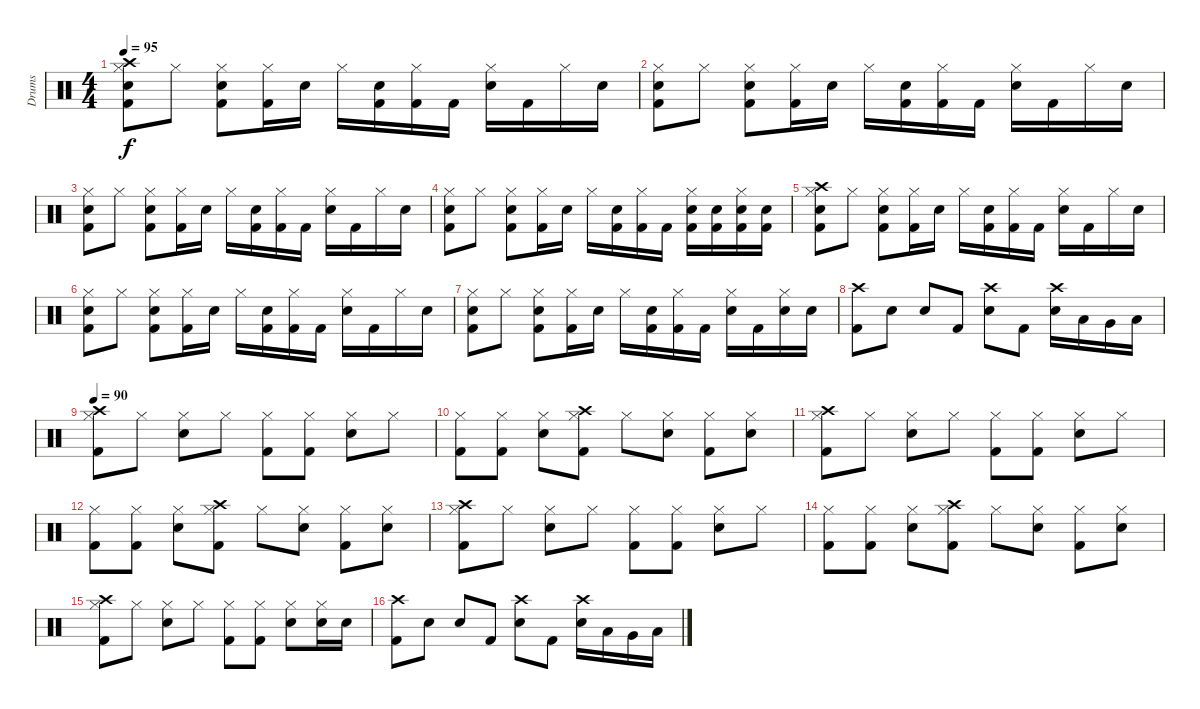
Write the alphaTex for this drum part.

\track ("Drums" "Drums") {instrument percussion}
\staff {score}
\articulation defaults
\ts (4 4)
\tempo 95
\clef neutral
\ks c
("Hi-Hat (closed)" "Kick (hit) 2" "Crash high (hit)" "Electric Snare (hit)").8{dy f} "Hi-Hat (closed)".8 ("Hi-Hat (closed)" "Kick (hit) 2" "Electric Snare (hit)").8 ("Hi-Hat (closed)" "Kick (hit) 2").16 "Electric Snare (hit)".16 "Hi-Hat (closed)".16 ("Electric Snare (hit)" "Kick (hit) 2").16 ("Hi-Hat (closed)" "Kick (hit) 2").16 "Kick (hit) 2".16 ("Hi-Hat (closed)" "Electric Snare (hit)").16 "Kick (hit) 2".16 "Hi-Hat (closed)".16 "Electric Snare (hit)".16 |
("Hi-Hat (closed)" "Kick (hit) 2" "Electric Snare (hit)").8 "Hi-Hat (closed)".8 ("Hi-Hat (closed)" "Kick (hit) 2" "Electric Snare (hit)").8 ("Hi-Hat (closed)" "Kick (hit) 2").16 "Electric Snare (hit)".16 "Hi-Hat (closed)".16 ("Electric Snare (hit)" "Kick (hit) 2").16 ("Hi-Hat (closed)" "Kick (hit) 2").16 "Kick (hit) 2".16 ("Hi-Hat (closed)" "Electric Snare (hit)").16 "Kick (hit) 2".16 "Hi-Hat (closed)".16 "Electric Snare (hit)".16 |
("Hi-Hat (closed)" "Kick (hit) 2" "Electric Snare (hit)").8 "Hi-Hat (closed)".8 ("Hi-Hat (closed)" "Kick (hit) 2" "Electric Snare (hit)").8 ("Hi-Hat (closed)" "Kick (hit) 2").16 "Electric Snare (hit)".16 "Hi-Hat (closed)".16 ("Electric Snare (hit)" "Kick (hit) 2").16 ("Hi-Hat (closed)" "Kick (hit) 2").16 "Kick (hit) 2".16 ("Hi-Hat (closed)" "Electric Snare (hit)").16 "Kick (hit) 2".16 "Hi-Hat (closed)".16 "Electric Snare (hit)".16 |
("Hi-Hat (closed)" "Kick (hit) 2" "Electric Snare (hit)").8 "Hi-Hat (closed)".8 ("Hi-Hat (closed)" "Kick (hit) 2" "Electric Snare (hit)").8 ("Hi-Hat (closed)" "Kick (hit) 2").16 "Electric Snare (hit)".16 "Hi-Hat (closed)".16 ("Electric Snare (hit)" "Kick (hit) 2").16 ("Hi-Hat (closed)" "Kick (hit) 2").16 "Kick (hit) 2".16 ("Kick (hit) 2" "Hi-Hat (closed)" "Electric Snare (hit)").16 ("Electric Snare (hit)" "Kick (hit) 2").16 ("Kick (hit) 2" "Hi-Hat (closed)" "Electric Snare (hit)").16 ("Kick (hit) 2" "Electric Snare (hit)").16 |
("Hi-Hat (closed)" "Kick (hit) 2" "Crash high (hit)" "Electric Snare (hit)").8 "Hi-Hat (closed)".8 ("Hi-Hat (closed)" "Kick (hit) 2" "Electric Snare (hit)").8 ("Hi-Hat (closed)" "Kick (hit) 2").16 "Electric Snare (hit)".16 "Hi-Hat (closed)".16 ("Electric Snare (hit)" "Kick (hit) 2").16 ("Hi-Hat (closed)" "Kick (hit) 2").16 "Kick (hit) 2".16 ("Hi-Hat (closed)" "Electric Snare (hit)").16 "Kick (hit) 2".16 "Hi-Hat (closed)".16 "Electric Snare (hit)".16 |
("Hi-Hat (closed)" "Kick (hit) 2" "Electric Snare (hit)").8 "Hi-Hat (closed)".8 ("Hi-Hat (closed)" "Kick (hit) 2" "Electric Snare (hit)").8 ("Hi-Hat (closed)" "Kick (hit) 2").16 "Electric Snare (hit)".16 "Hi-Hat (closed)".16 ("Electric Snare (hit)" "Kick (hit) 2").16 ("Hi-Hat (closed)" "Kick (hit) 2").16 "Kick (hit) 2".16 ("Hi-Hat (closed)" "Electric Snare (hit)").16 "Kick (hit) 2".16 "Hi-Hat (closed)".16 "Electric Snare (hit)".16 |
("Hi-Hat (closed)" "Kick (hit) 2" "Electric Snare (hit)").8 "Hi-Hat (closed)".8 ("Hi-Hat (closed)" "Kick (hit) 2" "Electric Snare (hit)").8 ("Hi-Hat (closed)" "Kick (hit) 2").16 "Electric Snare (hit)".16 "Hi-Hat (closed)".16 ("Electric Snare (hit)" "Kick (hit) 2").16 ("Hi-Hat (closed)" "Kick (hit) 2").16 "Kick (hit) 2".16 ("Hi-Hat (closed)" "Electric Snare (hit)").16 "Kick (hit) 2".16 ("Hi-Hat (closed)" "Electric Snare (hit)").16 "Electric Snare (hit)".16 |
("Crash high (hit)" "Kick (hit) 2").8 "Electric Snare (hit)".8 "Electric Snare (hit)".8 "Kick (hit) 2".8 ("Crash high (hit)" "Electric Snare (hit)").8 "Kick (hit) 2".8 ("Crash high (hit)" "Electric Snare (hit)").16 "Low Tom (hit)".16 "Very Low Tom (hit)".16 "Low Floor Tom (hit)".16 |
\tempo 90
("Crash high (hit)" "Hi-Hat (closed)" "Kick (hit) 2").8 "Hi-Hat (closed)".8 ("Hi-Hat (closed)" "Electric Snare (hit)").8 "Hi-Hat (closed)".8 ("Hi-Hat (closed)" "Kick (hit) 2").8 ("Hi-Hat (closed)" "Kick (hit) 2").8 ("Hi-Hat (closed)" "Electric Snare (hit)").8 "Hi-Hat (closed)".8 |
("Hi-Hat (closed)" "Kick (hit) 2").8 ("Hi-Hat (closed)" "Kick (hit) 2").8 ("Hi-Hat (closed)" "Electric Snare (hit)").8 ("Crash high (hit)" "Hi-Hat (closed)" "Kick (hit) 2").8 "Hi-Hat (closed)".8 ("Hi-Hat (closed)" "Electric Snare (hit)").8 ("Hi-Hat (closed)" "Kick (hit) 2").8 ("Hi-Hat (closed)" "Electric Snare (hit)").8 |
("Crash high (hit)" "Hi-Hat (closed)" "Kick (hit) 2").8 "Hi-Hat (closed)".8 ("Hi-Hat (closed)" "Electric Snare (hit)").8 "Hi-Hat (closed)".8 ("Hi-Hat (closed)" "Kick (hit) 2").8 ("Hi-Hat (closed)" "Kick (hit) 2").8 ("Hi-Hat (closed)" "Electric Snare (hit)").8 "Hi-Hat (closed)".8 |
("Hi-Hat (closed)" "Kick (hit) 2").8 ("Hi-Hat (closed)" "Kick (hit) 2").8 ("Hi-Hat (closed)" "Electric Snare (hit)").8 ("Crash high (hit)" "Hi-Hat (closed)" "Kick (hit) 2").8 "Hi-Hat (closed)".8 ("Hi-Hat (closed)" "Electric Snare (hit)").8 ("Hi-Hat (closed)" "Kick (hit) 2").8 ("Hi-Hat (closed)" "Electric Snare (hit)").8 |
("Crash high (hit)" "Hi-Hat (closed)" "Kick (hit) 2").8 "Hi-Hat (closed)".8 ("Hi-Hat (closed)" "Electric Snare (hit)").8 "Hi-Hat (closed)".8 ("Hi-Hat (closed)" "Kick (hit) 2").8 ("Hi-Hat (closed)" "Kick (hit) 2").8 ("Hi-Hat (closed)" "Electric Snare (hit)").8 "Hi-Hat (closed)".8 |
("Hi-Hat (closed)" "Kick (hit) 2").8 ("Hi-Hat (closed)" "Kick (hit) 2").8 ("Hi-Hat (closed)" "Electric Snare (hit)").8 ("Crash high (hit)" "Hi-Hat (closed)" "Kick (hit) 2").8 "Hi-Hat (closed)".8 ("Hi-Hat (closed)" "Electric Snare (hit)").8 ("Hi-Hat (closed)" "Kick (hit) 2").8 ("Hi-Hat (closed)" "Electric Snare (hit)").8 |
("Crash high (hit)" "Hi-Hat (closed)" "Kick (hit) 2").8 "Hi-Hat (closed)".8 ("Hi-Hat (closed)" "Electric Snare (hit)").8 "Hi-Hat (closed)".8 ("Hi-Hat (closed)" "Kick (hit) 2").8 ("Hi-Hat (closed)" "Kick (hit) 2").8 ("Hi-Hat (closed)" "Electric Snare (hit)").8 ("Electric Snare (hit)" "Hi-Hat (closed)").16 "Electric Snare (hit)".16 |
("Crash high (hit)" "Kick (hit) 2").8 "Electric Snare (hit)".8 "Electric Snare (hit)".8 "Kick (hit) 2".8 ("Crash high (hit)" "Electric Snare (hit)").8 "Kick (hit) 2".8 ("Crash high (hit)" "Electric Snare (hit)").16 "Low Tom (hit)".16 "Very Low Tom (hit)".16 "Low Floor Tom (hit)".16
